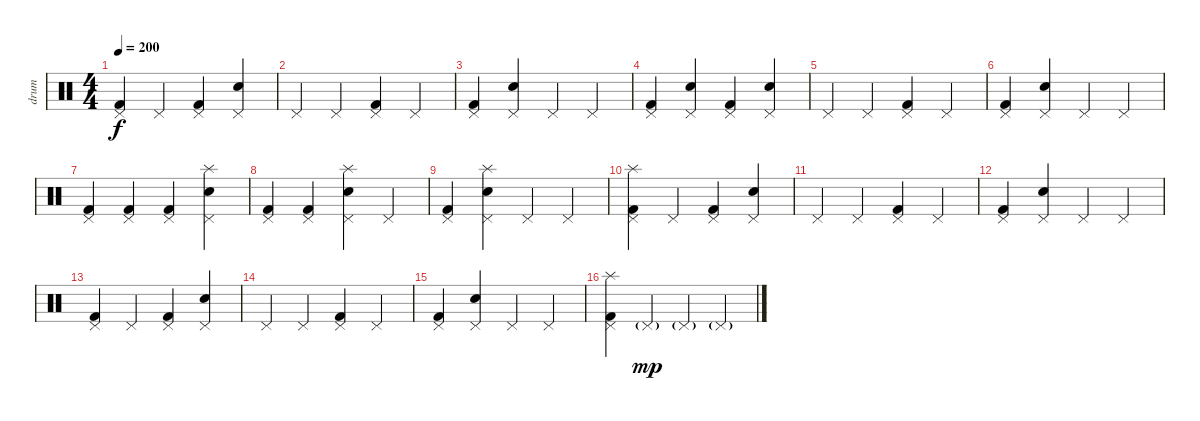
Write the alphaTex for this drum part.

\track ("drum" "drum") {instrument percussion}
\staff {score}
\articulation defaults
\ts (4 4)
\tempo 200
\clef neutral
\ks c
("Pedal Hi-Hat (hit)" "Kick (hit) 2").4{dy f} "Pedal Hi-Hat (hit)".4 ("Pedal Hi-Hat (hit)" "Kick (hit) 2").4 ("Pedal Hi-Hat (hit)" "Electric Snare (hit)").4 |
"Pedal Hi-Hat (hit)".4 "Pedal Hi-Hat (hit)".4 ("Pedal Hi-Hat (hit)" "Kick (hit) 2").4 "Pedal Hi-Hat (hit)".4 |
("Pedal Hi-Hat (hit)" "Kick (hit) 2").4 ("Pedal Hi-Hat (hit)" "Electric Snare (hit)").4 "Pedal Hi-Hat (hit)".4 "Pedal Hi-Hat (hit)".4 |
("Pedal Hi-Hat (hit)" "Kick (hit) 2").4 ("Pedal Hi-Hat (hit)" "Electric Snare (hit)").4 ("Pedal Hi-Hat (hit)" "Kick (hit) 2").4 ("Pedal Hi-Hat (hit)" "Electric Snare (hit)").4 |
"Pedal Hi-Hat (hit)".4 "Pedal Hi-Hat (hit)".4 ("Pedal Hi-Hat (hit)" "Kick (hit) 2").4 "Pedal Hi-Hat (hit)".4 |
("Pedal Hi-Hat (hit)" "Kick (hit) 2").4 ("Pedal Hi-Hat (hit)" "Electric Snare (hit)").4 "Pedal Hi-Hat (hit)".4 "Pedal Hi-Hat (hit)".4 |
("Pedal Hi-Hat (hit)" "Kick (hit) 2").4 ("Pedal Hi-Hat (hit)" "Kick (hit) 2").4 ("Pedal Hi-Hat (hit)" "Kick (hit) 2").4 ("Pedal Hi-Hat (hit)" "Splash (hit)" "Electric Snare (hit)").4 |
("Pedal Hi-Hat (hit)" "Kick (hit) 2").4 ("Pedal Hi-Hat (hit)" "Kick (hit) 2").4 ("Pedal Hi-Hat (hit)" "Splash (hit)" "Electric Snare (hit)").4 "Pedal Hi-Hat (hit)".4 |
("Pedal Hi-Hat (hit)" "Kick (hit) 2").4 ("Pedal Hi-Hat (hit)" "Splash (hit)" "Electric Snare (hit)").4 "Pedal Hi-Hat (hit)".4 "Pedal Hi-Hat (hit)".4 |
("Pedal Hi-Hat (hit)" "Splash (hit)" "Kick (hit) 2").4 "Pedal Hi-Hat (hit)".4 ("Pedal Hi-Hat (hit)" "Kick (hit) 2").4 ("Pedal Hi-Hat (hit)" "Electric Snare (hit)").4 |
"Pedal Hi-Hat (hit)".4 "Pedal Hi-Hat (hit)".4 ("Pedal Hi-Hat (hit)" "Kick (hit) 2").4 "Pedal Hi-Hat (hit)".4 |
("Pedal Hi-Hat (hit)" "Kick (hit) 2").4 ("Pedal Hi-Hat (hit)" "Electric Snare (hit)").4 "Pedal Hi-Hat (hit)".4 "Pedal Hi-Hat (hit)".4 |
("Pedal Hi-Hat (hit)" "Kick (hit) 2").4 "Pedal Hi-Hat (hit)".4 ("Pedal Hi-Hat (hit)" "Kick (hit) 2").4 ("Pedal Hi-Hat (hit)" "Electric Snare (hit)").4 |
"Pedal Hi-Hat (hit)".4 "Pedal Hi-Hat (hit)".4 ("Pedal Hi-Hat (hit)" "Kick (hit) 2").4 "Pedal Hi-Hat (hit)".4 |
("Pedal Hi-Hat (hit)" "Kick (hit) 2").4 ("Pedal Hi-Hat (hit)" "Electric Snare (hit)").4 "Pedal Hi-Hat (hit)".4 "Pedal Hi-Hat (hit)".4 |
("Pedal Hi-Hat (hit)" "Splash (hit)" "Kick (hit) 2").4 "Pedal Hi-Hat (hit)"{g}.4{dy mp} "Pedal Hi-Hat (hit)"{g}.4 "Pedal Hi-Hat (hit)"{g}.4
